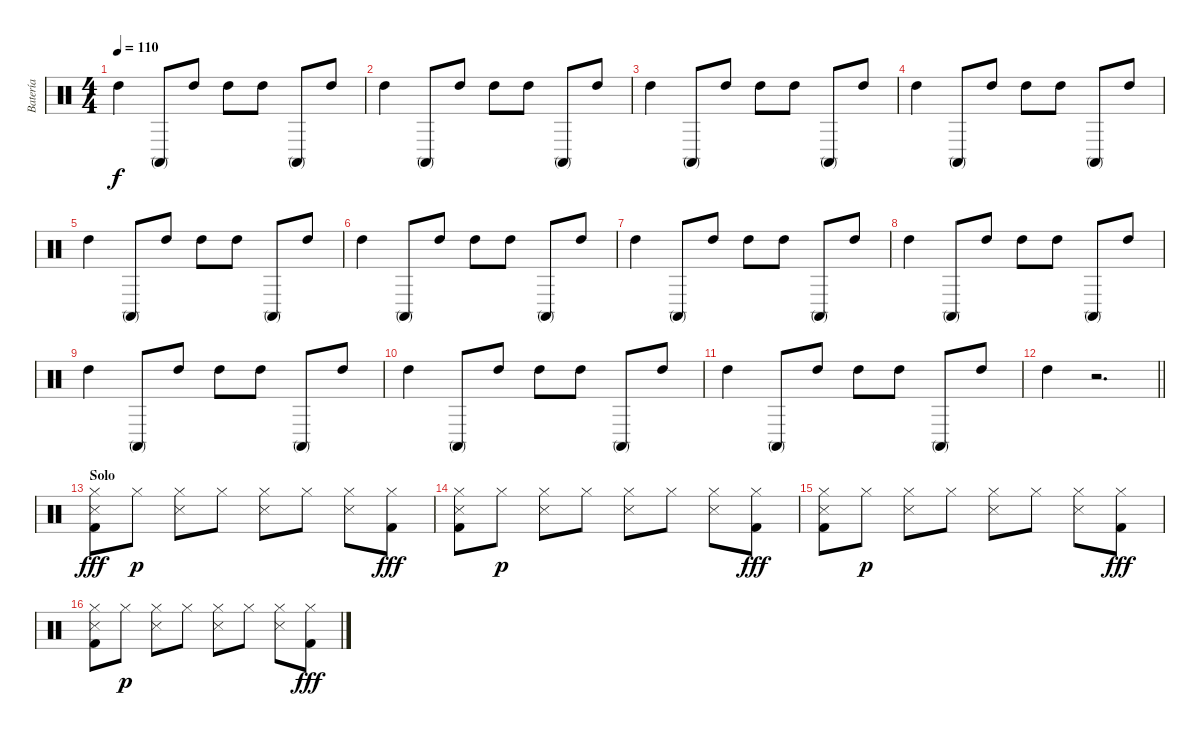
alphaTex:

\track ("Batería" "Batería") {instrument percussion}
\staff {score}
\articulation defaults
\ts (4 4)
\tempo 110
\clef neutral
\ks c "High Tom (hit)".4{dy f} "Conga high (mute)".8 "High Tom (hit)".8 "High Tom (hit)".8 "High Tom (hit)".8 "Conga high (mute)".8 "High Tom (hit)".8
|
"High Tom (hit)".4 "Conga high (mute)".8 "High Tom (hit)".8 "High Tom (hit)".8 "High Tom (hit)".8 "Conga high (mute)".8 "High Tom (hit)".8 |
"High Tom (hit)".4 "Conga high (mute)".8 "High Tom (hit)".8 "High Tom (hit)".8 "High Tom (hit)".8 "Conga high (mute)".8 "High Tom (hit)".8 |
"High Tom (hit)".4 "Conga high (mute)".8 "High Tom (hit)".8 "High Tom (hit)".8 "High Tom (hit)".8 "Conga high (mute)".8 "High Tom (hit)".8 |
"High Tom (hit)".4 "Conga high (mute)".8 "High Tom (hit)".8 "High Tom (hit)".8 "High Tom (hit)".8 "Conga high (mute)".8 "High Tom (hit)".8 |
"High Tom (hit)".4 "Conga high (mute)".8 "High Tom (hit)".8 "High Tom (hit)".8 "High Tom (hit)".8 "Conga high (mute)".8 "High Tom (hit)".8 |
"High Tom (hit)".4 "Conga high (mute)".8 "High Tom (hit)".8 "High Tom (hit)".8 "High Tom (hit)".8 "Conga high (mute)".8 "High Tom (hit)".8 |
"High Tom (hit)".4 "Conga high (mute)".8 "High Tom (hit)".8 "High Tom (hit)".8 "High Tom (hit)".8 "Conga high (mute)".8 "High Tom (hit)".8 |
"High Tom (hit)".4 "Conga high (mute)".8 "High Tom (hit)".8 "High Tom (hit)".8 "High Tom (hit)".8 "Conga high (mute)".8 "High Tom (hit)".8 |
"High Tom (hit)".4 "Conga high (mute)".8 "High Tom (hit)".8 "High Tom (hit)".8 "High Tom (hit)".8 "Conga high (mute)".8 "High Tom (hit)".8 |
"High Tom (hit)".4 "Conga high (mute)".8 "High Tom (hit)".8 "High Tom (hit)".8 "High Tom (hit)".8 "Conga high (mute)".8 "High Tom (hit)".8 |
\barLineRight lightlight "High Tom (hit)".4
r.2{d} |
\section ("" "Solo")
("Hi-Hat (closed)" "Snare (side stick) 3" "Kick (hit) 2").8{dy fff} "Hi-Hat (closed)".8{dy p} ("Hi-Hat (closed)" "Snare (side stick) 3").8 "Hi-Hat (closed)".8 ("Hi-Hat (closed)" "Snare (side stick) 3").8 "Hi-Hat (closed)".8 ("Hi-Hat (closed)" "Snare (side stick) 3").8 ("Hi-Hat (closed)" "Kick (hit) 2").8{dy fff} |
("Hi-Hat (closed)" "Snare (side stick) 3" "Kick (hit) 2").8 "Hi-Hat (closed)".8{dy p} ("Hi-Hat (closed)" "Snare (side stick) 3").8 "Hi-Hat (closed)".8 ("Hi-Hat (closed)" "Snare (side stick) 3").8 "Hi-Hat (closed)".8 ("Hi-Hat (closed)" "Snare (side stick) 3").8 ("Hi-Hat (closed)" "Kick (hit) 2").8{dy fff} |
("Hi-Hat (closed)" "Snare (side stick) 3" "Kick (hit) 2").8 "Hi-Hat (closed)".8{dy p} ("Hi-Hat (closed)" "Snare (side stick) 3").8 "Hi-Hat (closed)".8 ("Hi-Hat (closed)" "Snare (side stick) 3").8 "Hi-Hat (closed)".8 ("Hi-Hat (closed)" "Snare (side stick) 3").8 ("Hi-Hat (closed)" "Kick (hit) 2").8{dy fff} |
("Hi-Hat (closed)" "Snare (side stick) 3" "Kick (hit) 2").8 "Hi-Hat (closed)".8{dy p} ("Hi-Hat (closed)" "Snare (side stick) 3").8 "Hi-Hat (closed)".8 ("Hi-Hat (closed)" "Snare (side stick) 3").8 "Hi-Hat (closed)".8 ("Hi-Hat (closed)" "Snare (side stick) 3").8 ("Hi-Hat (closed)" "Kick (hit) 2").8{dy fff}
